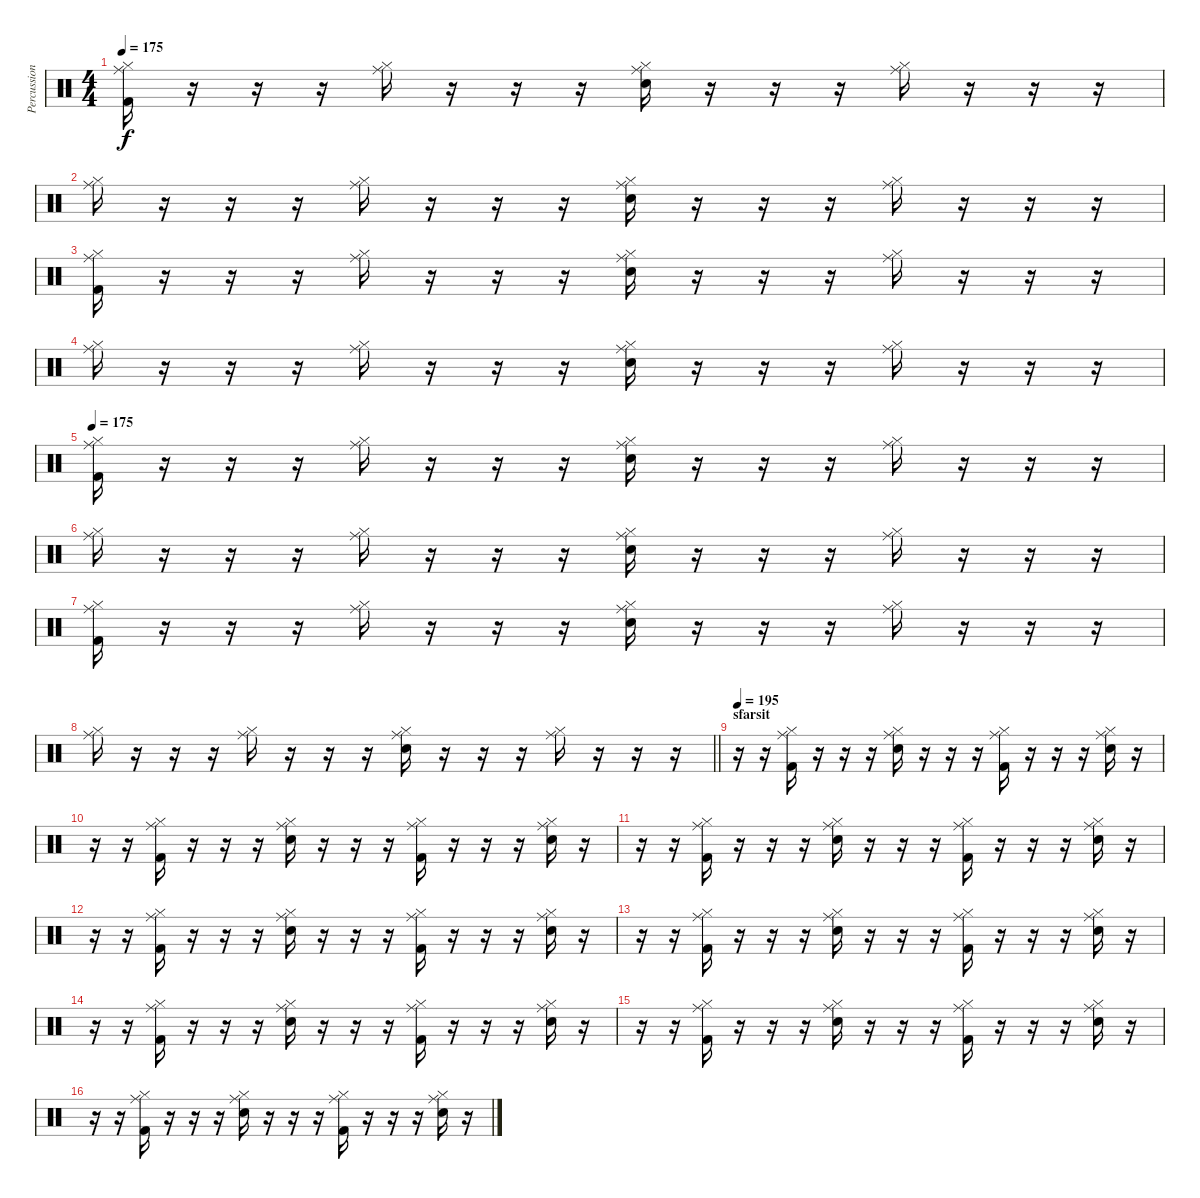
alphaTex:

\track ("Percussion" "Percussion") {instrument percussion}
\staff {score}
\articulation defaults
\ts (4 4)
\tempo 175
\clef neutral
\ks c
("Ride (middle)" "Hi-Hat (closed)" "Kick (hit) 2").16{dy f} r.16 r.16 r.16 ("Ride (middle)" "Hi-Hat (closed)").16 r.16 r.16 r.16 ("Ride (middle)" "Hi-Hat (closed)" "Snare (hit) 2").16 r.16 r.16 r.16 ("Ride (middle)" "Hi-Hat (closed)").16 r.16 r.16 r.16 |
("Ride (middle)" "Hi-Hat (closed)").16 r.16 r.16 r.16 ("Ride (middle)" "Hi-Hat (closed)").16 r.16 r.16 r.16 ("Ride (middle)" "Hi-Hat (closed)" "Snare (hit) 2").16 r.16 r.16 r.16 ("Ride (middle)" "Hi-Hat (closed)").16 r.16 r.16 r.16 |
("Ride (middle)" "Hi-Hat (closed)" "Kick (hit) 2").16 r.16 r.16 r.16 ("Ride (middle)" "Hi-Hat (closed)").16 r.16 r.16 r.16 ("Ride (middle)" "Hi-Hat (closed)" "Snare (hit) 2").16 r.16 r.16 r.16 ("Ride (middle)" "Hi-Hat (closed)").16 r.16 r.16 r.16 |
("Ride (middle)" "Hi-Hat (closed)").16 r.16 r.16 r.16 ("Ride (middle)" "Hi-Hat (closed)").16 r.16 r.16 r.16 ("Ride (middle)" "Hi-Hat (closed)" "Snare (hit) 2").16 r.16 r.16 r.16 ("Ride (middle)" "Hi-Hat (closed)").16 r.16 r.16 r.16 |
\tempo 175
("Ride (middle)" "Hi-Hat (closed)" "Kick (hit) 2").16 r.16 r.16 r.16 ("Ride (middle)" "Hi-Hat (closed)").16 r.16 r.16 r.16 ("Ride (middle)" "Hi-Hat (closed)" "Snare (hit) 2").16 r.16 r.16 r.16 ("Ride (middle)" "Hi-Hat (closed)").16 r.16 r.16 r.16 |
("Ride (middle)" "Hi-Hat (closed)").16 r.16 r.16 r.16 ("Ride (middle)" "Hi-Hat (closed)").16 r.16 r.16 r.16 ("Ride (middle)" "Hi-Hat (closed)" "Snare (hit) 2").16 r.16 r.16 r.16 ("Ride (middle)" "Hi-Hat (closed)").16 r.16 r.16 r.16 |
("Ride (middle)" "Hi-Hat (closed)" "Kick (hit) 2").16 r.16 r.16 r.16 ("Ride (middle)" "Hi-Hat (closed)").16 r.16 r.16 r.16 ("Ride (middle)" "Hi-Hat (closed)" "Snare (hit) 2").16 r.16 r.16 r.16 ("Ride (middle)" "Hi-Hat (closed)").16 r.16 r.16 r.16 |
\barLineRight lightlight
("Ride (middle)" "Hi-Hat (closed)").16 r.16 r.16 r.16 ("Ride (middle)" "Hi-Hat (closed)").16 r.16 r.16 r.16 ("Ride (middle)" "Hi-Hat (closed)" "Snare (hit) 2").16 r.16 r.16 r.16 ("Hi-Hat (closed)" "Ride (middle)").16 r.16 r.16 r.16 |
\section ("" "sfarsit")
\tempo 195
r.16 r.16 ("Ride (middle)" "Hi-Hat (closed)" "Kick (hit) 2").16 r.16 r.16 r.16 ("Ride (middle)" "Hi-Hat (closed)" "Snare (hit) 2").16 r.16 r.16 r.16 ("Ride (middle)" "Hi-Hat (closed)" "Kick (hit) 2").16 r.16 r.16 r.16 ("Ride (middle)" "Hi-Hat (closed)" "Snare (hit) 2").16 r.16 |
r.16 r.16 ("Ride (middle)" "Hi-Hat (closed)" "Kick (hit) 2").16 r.16 r.16 r.16 ("Ride (middle)" "Hi-Hat (closed)" "Snare (hit) 2").16 r.16 r.16 r.16 ("Ride (middle)" "Hi-Hat (closed)" "Kick (hit) 2").16 r.16 r.16 r.16 ("Ride (middle)" "Hi-Hat (closed)" "Snare (hit) 2").16 r.16 |
r.16 r.16 ("Ride (middle)" "Hi-Hat (closed)" "Kick (hit) 2").16 r.16 r.16 r.16 ("Ride (middle)" "Hi-Hat (closed)" "Snare (hit) 2").16 r.16 r.16 r.16 ("Ride (middle)" "Hi-Hat (closed)" "Kick (hit) 2").16 r.16 r.16 r.16 ("Ride (middle)" "Hi-Hat (closed)" "Snare (hit) 2").16 r.16 |
r.16 r.16 ("Ride (middle)" "Hi-Hat (closed)" "Kick (hit) 2").16 r.16 r.16 r.16 ("Ride (middle)" "Hi-Hat (closed)" "Snare (hit) 2").16 r.16 r.16 r.16 ("Ride (middle)" "Hi-Hat (closed)" "Kick (hit) 2").16 r.16 r.16 r.16 ("Ride (middle)" "Hi-Hat (closed)" "Snare (hit) 2").16 r.16 |
r.16 r.16 ("Ride (middle)" "Hi-Hat (closed)" "Kick (hit) 2").16 r.16 r.16 r.16 ("Ride (middle)" "Hi-Hat (closed)" "Snare (hit) 2").16 r.16 r.16 r.16 ("Ride (middle)" "Hi-Hat (closed)" "Kick (hit) 2").16 r.16 r.16 r.16 ("Ride (middle)" "Hi-Hat (closed)" "Snare (hit) 2").16 r.16 |
r.16 r.16 ("Ride (middle)" "Hi-Hat (closed)" "Kick (hit) 2").16 r.16 r.16 r.16 ("Ride (middle)" "Hi-Hat (closed)" "Snare (hit) 2").16 r.16 r.16 r.16 ("Ride (middle)" "Hi-Hat (closed)" "Kick (hit) 2").16 r.16 r.16 r.16 ("Ride (middle)" "Hi-Hat (closed)" "Snare (hit) 2").16 r.16 |
r.16 r.16 ("Ride (middle)" "Hi-Hat (closed)" "Kick (hit) 2").16 r.16 r.16 r.16 ("Ride (middle)" "Hi-Hat (closed)" "Snare (hit) 2").16 r.16 r.16 r.16 ("Ride (middle)" "Hi-Hat (closed)" "Kick (hit) 2").16 r.16 r.16 r.16 ("Ride (middle)" "Hi-Hat (closed)" "Snare (hit) 2").16 r.16 |
r.16 r.16 ("Ride (middle)" "Hi-Hat (closed)" "Kick (hit) 2").16 r.16 r.16 r.16 ("Ride (middle)" "Hi-Hat (closed)" "Snare (hit) 2").16 r.16 r.16 r.16 ("Ride (middle)" "Hi-Hat (closed)" "Kick (hit) 2").16 r.16 r.16 r.16 ("Ride (middle)" "Hi-Hat (closed)" "Snare (hit) 2").16 r.16
